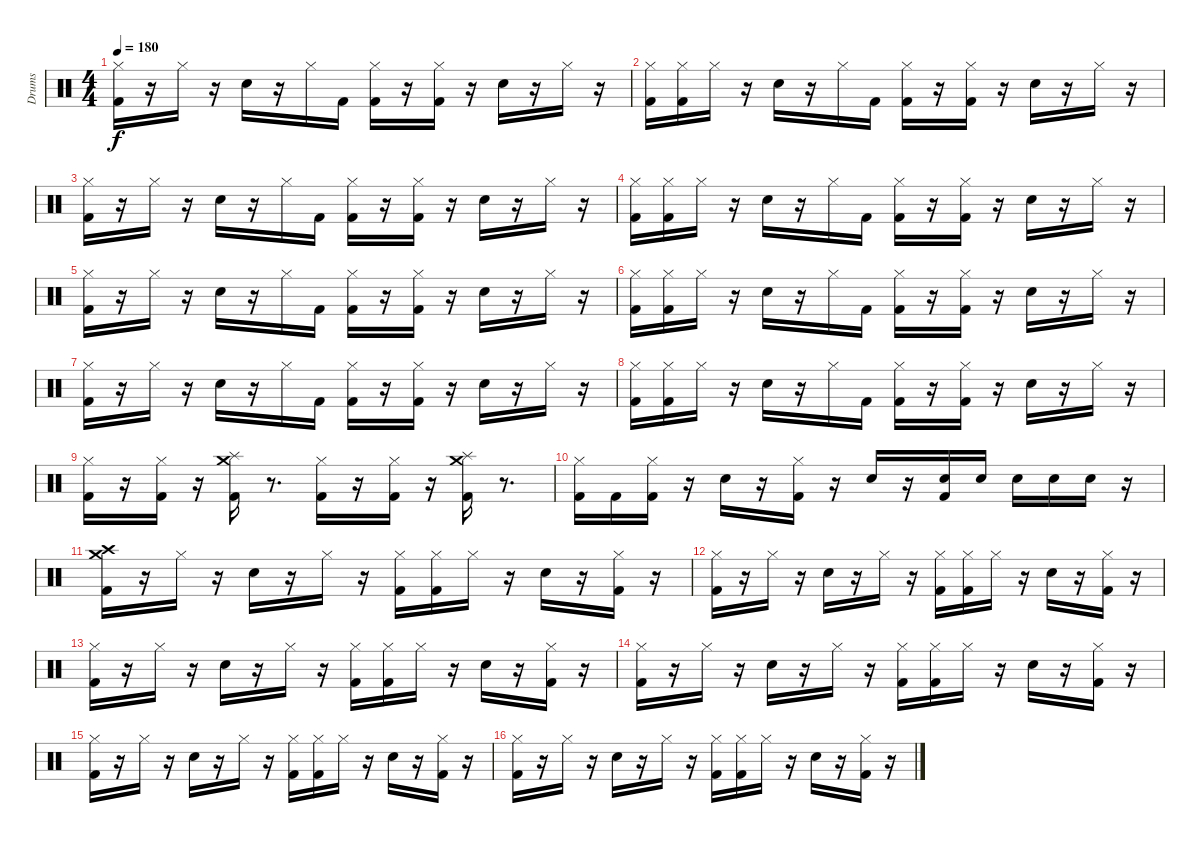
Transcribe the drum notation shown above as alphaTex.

\track ("Drums" "Drums") {instrument percussion}
\staff {score}
\articulation defaults
\ts (4 4)
\tempo 180
\clef neutral
\ks c
("Hi-Hat (closed)" "Kick (hit) 2").16{dy f} r.16 "Hi-Hat (closed)".16 r.16 "Snare (hit) 2".16 r.16 "Hi-Hat (closed)".16 "Kick (hit) 2".16 ("Hi-Hat (closed)" "Kick (hit) 2").16 r.16 ("Hi-Hat (closed)" "Kick (hit) 2").16 r.16 "Snare (hit) 2".16 r.16 "Hi-Hat (closed)".16 r.16 |
("Hi-Hat (closed)" "Kick (hit) 2").16 ("Hi-Hat (closed)" "Kick (hit) 2").16 "Hi-Hat (closed)".16 r.16 "Snare (hit) 2".16 r.16 "Hi-Hat (closed)".16 "Kick (hit) 2".16 ("Hi-Hat (closed)" "Kick (hit) 2").16 r.16 ("Hi-Hat (closed)" "Kick (hit) 2").16 r.16 "Snare (hit) 2".16 r.16 "Hi-Hat (closed)".16 r.16 |
("Hi-Hat (closed)" "Kick (hit) 2").16 r.16 "Hi-Hat (closed)".16 r.16 "Snare (hit) 2".16 r.16 "Hi-Hat (closed)".16 "Kick (hit) 2".16 ("Hi-Hat (closed)" "Kick (hit) 2").16 r.16 ("Hi-Hat (closed)" "Kick (hit) 2").16 r.16 "Snare (hit) 2".16 r.16 "Hi-Hat (closed)".16 r.16 |
("Hi-Hat (closed)" "Kick (hit) 2").16 ("Hi-Hat (closed)" "Kick (hit) 2").16 "Hi-Hat (closed)".16 r.16 "Snare (hit) 2".16 r.16 "Hi-Hat (closed)".16 "Kick (hit) 2".16 ("Hi-Hat (closed)" "Kick (hit) 2").16 r.16 ("Hi-Hat (closed)" "Kick (hit) 2").16 r.16 "Snare (hit) 2".16 r.16 "Hi-Hat (closed)".16 r.16 |
("Hi-Hat (closed)" "Kick (hit) 2").16 r.16 "Hi-Hat (closed)".16 r.16 "Snare (hit) 2".16 r.16 "Hi-Hat (closed)".16 "Kick (hit) 2".16 ("Hi-Hat (closed)" "Kick (hit) 2").16 r.16 ("Hi-Hat (closed)" "Kick (hit) 2").16 r.16 "Snare (hit) 2".16 r.16 "Hi-Hat (closed)".16 r.16 |
("Hi-Hat (closed)" "Kick (hit) 2").16 ("Hi-Hat (closed)" "Kick (hit) 2").16 "Hi-Hat (closed)".16 r.16 "Snare (hit) 2".16 r.16 "Hi-Hat (closed)".16 "Kick (hit) 2".16 ("Hi-Hat (closed)" "Kick (hit) 2").16 r.16 ("Hi-Hat (closed)" "Kick (hit) 2").16 r.16 "Snare (hit) 2".16 r.16 "Hi-Hat (closed)".16 r.16 |
("Hi-Hat (closed)" "Kick (hit) 2").16 r.16 "Hi-Hat (closed)".16 r.16 "Snare (hit) 2".16 r.16 "Hi-Hat (closed)".16 "Kick (hit) 2".16 ("Hi-Hat (closed)" "Kick (hit) 2").16 r.16 ("Hi-Hat (closed)" "Kick (hit) 2").16 r.16 "Snare (hit) 2".16 r.16 "Hi-Hat (closed)".16 r.16 |
("Hi-Hat (closed)" "Kick (hit) 2").16 ("Hi-Hat (closed)" "Kick (hit) 2").16 "Hi-Hat (closed)".16 r.16 "Snare (hit) 2".16 r.16 "Hi-Hat (closed)".16 "Kick (hit) 2".16 ("Hi-Hat (closed)" "Kick (hit) 2").16 r.16 ("Hi-Hat (closed)" "Kick (hit) 2").16 r.16 "Snare (hit) 2".16 r.16 "Hi-Hat (closed)".16 r.16 |
("Hi-Hat (closed)" "Kick (hit) 2").16 r.16 ("Hi-Hat (closed)" "Kick (hit) 2").16 r.16 ("Crash medium (hit)" "Splash (hit)" "Kick (hit) 2").16 r.8{d} ("Hi-Hat (closed)" "Kick (hit) 2").16 r.16 ("Hi-Hat (closed)" "Kick (hit) 2").16 r.16 ("Crash medium (hit)" "Splash (hit)" "Kick (hit) 2").16 r.8{d} |
("Hi-Hat (closed)" "Kick (hit) 2").16 "Kick (hit) 2".16 ("Hi-Hat (closed)" "Kick (hit) 2").16 r.16 "Snare (hit) 2".16 r.16 ("Hi-Hat (closed)" "Kick (hit) 2").16 r.16 "Snare (hit) 2".16 r.16 ("Snare (hit) 2" "Kick (hit) 2").16 "Snare (hit) 2".16 "Snare (hit) 2".16 "Snare (hit) 2".16 "Snare (hit) 2".16 r.16 |
("Crash medium (hit)" "Crash high (hit)" "Kick (hit) 2").16 r.16 "Hi-Hat (closed)".16 r.16 "Snare (hit) 2".16 r.16 "Hi-Hat (closed)".16 r.16 ("Hi-Hat (closed)" "Kick (hit) 2").16 ("Hi-Hat (closed)" "Kick (hit) 2").16 "Hi-Hat (closed)".16 r.16 "Snare (hit) 2".16 r.16 ("Hi-Hat (closed)" "Kick (hit) 2").16 r.16 |
("Hi-Hat (closed)" "Kick (hit) 2").16 r.16 "Hi-Hat (closed)".16 r.16 "Snare (hit) 2".16 r.16 "Hi-Hat (closed)".16 r.16 ("Hi-Hat (closed)" "Kick (hit) 2").16 ("Hi-Hat (closed)" "Kick (hit) 2").16 "Hi-Hat (closed)".16 r.16 "Snare (hit) 2".16 r.16 ("Hi-Hat (closed)" "Kick (hit) 2").16 r.16 |
("Hi-Hat (closed)" "Kick (hit) 2").16 r.16 "Hi-Hat (closed)".16 r.16 "Snare (hit) 2".16 r.16 "Hi-Hat (closed)".16 r.16 ("Hi-Hat (closed)" "Kick (hit) 2").16 ("Hi-Hat (closed)" "Kick (hit) 2").16 "Hi-Hat (closed)".16 r.16 "Snare (hit) 2".16 r.16 ("Hi-Hat (closed)" "Kick (hit) 2").16 r.16 |
("Hi-Hat (closed)" "Kick (hit) 2").16 r.16 "Hi-Hat (closed)".16 r.16 "Snare (hit) 2".16 r.16 "Hi-Hat (closed)".16 r.16 ("Hi-Hat (closed)" "Kick (hit) 2").16 ("Hi-Hat (closed)" "Kick (hit) 2").16 "Hi-Hat (closed)".16 r.16 "Snare (hit) 2".16 r.16 ("Hi-Hat (closed)" "Kick (hit) 2").16 r.16 |
("Hi-Hat (closed)" "Kick (hit) 2").16 r.16 "Hi-Hat (closed)".16 r.16 "Snare (hit) 2".16 r.16 "Hi-Hat (closed)".16 r.16 ("Hi-Hat (closed)" "Kick (hit) 2").16 ("Hi-Hat (closed)" "Kick (hit) 2").16 "Hi-Hat (closed)".16 r.16 "Snare (hit) 2".16 r.16 ("Hi-Hat (closed)" "Kick (hit) 2").16 r.16 |
("Hi-Hat (closed)" "Kick (hit) 2").16 r.16 "Hi-Hat (closed)".16 r.16 "Snare (hit) 2".16 r.16 "Hi-Hat (closed)".16 r.16 ("Hi-Hat (closed)" "Kick (hit) 2").16 ("Hi-Hat (closed)" "Kick (hit) 2").16 "Hi-Hat (closed)".16 r.16 "Snare (hit) 2".16 r.16 ("Hi-Hat (closed)" "Kick (hit) 2").16 r.16
